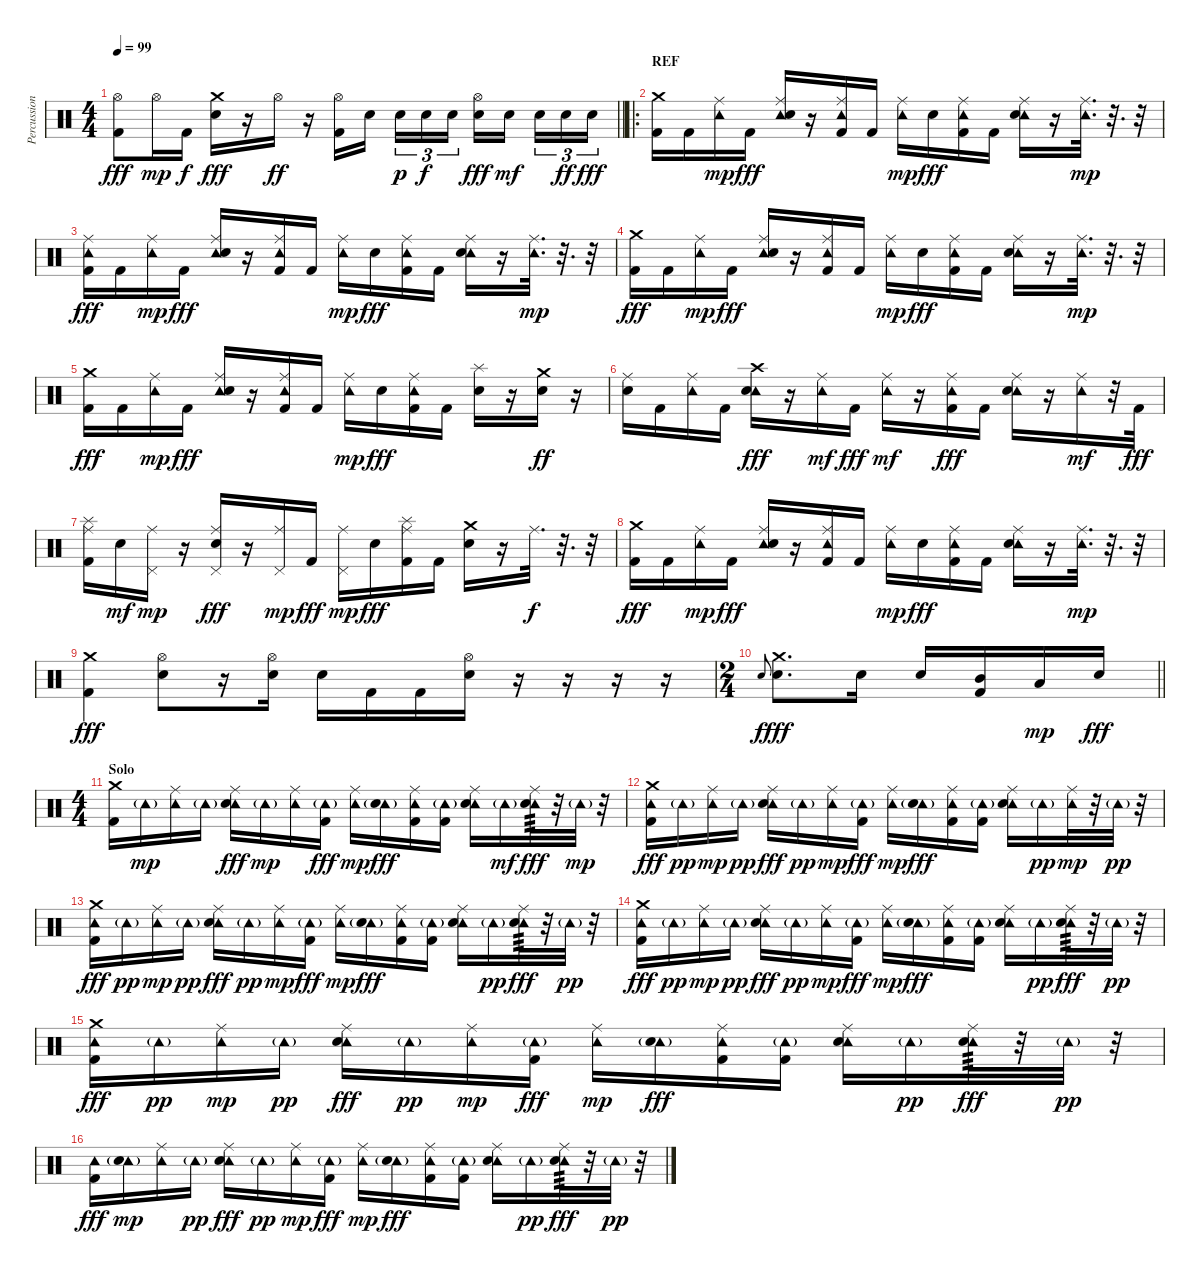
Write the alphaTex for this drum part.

\track ("Percussion" "Percussion") {instrument percussion}
\staff {score}
\articulation defaults
\ts (4 4)
\tempo 99
\clef neutral
\barLineRight lightlight
\ks c
("Hi-Hat (open)" "Kick (hit) 2").8{dy fff} "Hi-Hat (open)".16{dy mp} "Kick (hit) 2".16{dy f} ("Crash medium (hit)" "Snare (hit) 2").16{dy fff} r.16 "Hi-Hat (open)".16{dy ff} r.16 ("Hi-Hat (open)" "Kick (hit) 2").16 "Snare (hit) 2".16{beam splitsecondary} "Snare (hit) 2".16{tu (3 2) dy p} "Snare (hit) 2".16{tu (3 2) dy f} "Snare (hit) 2".16{tu (3 2)} ("Hi-Hat (open)" "Snare (hit) 2").16{dy fff} "Snare (hit) 2".16{dy mf beam splitsecondary} "Snare (hit) 2".16{tu (3 2)} "Snare (hit) 2".16{tu (3 2) dy ff} "Snare (hit) 2".16{tu (3 2) dy fff} |
\ro
\section ("" "REF")
("Crash medium (hit)" "Kick (hit) 2").16 "Kick (hit) 2".16 ("Ride (middle)" "Tambourine (hit)").16{dy mp} "Kick (hit) 2".16{dy fff} ("Ride (middle)" "Tambourine (hit)" "Snare (hit) 2").16 r.16 ("Ride (middle)" "Tambourine (hit)" "Kick (hit) 2").16 "Kick (hit) 2".16 ("Ride (middle)" "Tambourine (hit)").16{dy mp} "Snare (hit) 2".16{dy fff} ("Ride (middle)" "Tambourine (hit)" "Kick (hit) 2").16 "Kick (hit) 2".16 ("Ride (middle)" "Tambourine (hit)" "Snare (hit) 2").16 r.16 ("Ride (middle)" "Tambourine (hit)").32{d dy mp} r.32{d} r.32 |
("Ride (middle)" "Tambourine (hit)" "Kick (hit) 2").16{dy fff} "Kick (hit) 2".16 ("Ride (middle)" "Tambourine (hit)").16{dy mp} "Kick (hit) 2".16{dy fff} ("Ride (middle)" "Tambourine (hit)" "Snare (hit) 2").16 r.16 ("Ride (middle)" "Tambourine (hit)" "Kick (hit) 2").16 "Kick (hit) 2".16 ("Ride (middle)" "Tambourine (hit)").16{dy mp} "Snare (hit) 2".16{dy fff} ("Ride (middle)" "Tambourine (hit)" "Kick (hit) 2").16 "Kick (hit) 2".16 ("Ride (middle)" "Tambourine (hit)" "Snare (hit) 2").16 r.16 ("Ride (middle)" "Tambourine (hit)").32{d dy mp} r.32{d} r.32 |
("Crash medium (hit)" "Kick (hit) 2").16{dy fff} "Kick (hit) 2".16 ("Ride (middle)" "Tambourine (hit)").16{dy mp} "Kick (hit) 2".16{dy fff} ("Ride (middle)" "Tambourine (hit)" "Snare (hit) 2").16 r.16 ("Ride (middle)" "Tambourine (hit)" "Kick (hit) 2").16 "Kick (hit) 2".16 ("Ride (middle)" "Tambourine (hit)").16{dy mp} "Snare (hit) 2".16{dy fff} ("Ride (middle)" "Tambourine (hit)" "Kick (hit) 2").16 "Kick (hit) 2".16 ("Ride (middle)" "Tambourine (hit)" "Snare (hit) 2").16 r.16 ("Ride (middle)" "Tambourine (hit)").32{d dy mp} r.32{d} r.32 |
("Crash medium (hit)" "Kick (hit) 2").16{dy fff} "Kick (hit) 2".16 ("Ride (middle)" "Tambourine (hit)").16{dy mp} "Kick (hit) 2".16{dy fff} ("Ride (middle)" "Tambourine (hit)" "Snare (hit) 2").16 r.16 ("Ride (middle)" "Tambourine (hit)" "Kick (hit) 2").16 "Kick (hit) 2".16 ("Ride (middle)" "Tambourine (hit)").16{dy mp} "Snare (hit) 2".16{dy fff} ("Ride (middle)" "Tambourine (hit)" "Kick (hit) 2").16 "Kick (hit) 2".16 ("Splash (hit)" "Snare (hit) 2").16 r.16 ("Crash medium (hit)" "Snare (hit) 2").16{dy ff} r.16 |
("Ride (middle)" "Snare (hit) 2").16 "Kick (hit) 2".16 ("Ride (middle)" "Tambourine (hit)").16 "Kick (hit) 2".16 ("Crash high (hit)" "Tambourine (hit)" "Snare (hit) 2").16{dy fff} r.16 ("Ride (middle)" "Tambourine (hit)").16{dy mf} "Kick (hit) 2".16{dy fff} ("Ride (middle)" "Tambourine (hit)").16{dy mf} r.16 ("Ride (middle)" "Tambourine (hit)" "Kick (hit) 2").16{dy fff} "Kick (hit) 2".16 ("Ride (middle)" "Tambourine (hit)" "Snare (hit) 2").16 r.16 ("Ride (middle)" "Tambourine (hit)").16{dy mf} r.32 "Kick (hit) 2".32{dy fff} |
("Ride (middle)" "Splash (hit)" "Kick (hit) 2").16 "Snare (hit) 2".16{dy mf} ("Ride (middle)" "Pedal Hi-Hat (hit)").16{dy mp} r.16 ("Ride (middle)" "Pedal Hi-Hat (hit)" "Snare (hit) 2").16{dy fff} r.16 ("Ride (middle)" "Pedal Hi-Hat (hit)").16{dy mp} "Kick (hit) 2".16{dy fff} ("Ride (middle)" "Pedal Hi-Hat (hit)").16{dy mp} "Snare (hit) 2".16{dy fff} ("Ride (middle)" "Splash (hit)" "Kick (hit) 2").16 "Kick (hit) 2".16 ("Crash medium (hit)" "Snare (hit) 2").16 r.16 "Ride (middle)".32{d dy f} r.32{d} r.32 |
("Crash medium (hit)" "Kick (hit) 2").16{dy fff} "Kick (hit) 2".16 ("Ride (middle)" "Tambourine (hit)").16{dy mp} "Kick (hit) 2".16{dy fff} ("Ride (middle)" "Tambourine (hit)" "Snare (hit) 2").16 r.16 ("Ride (middle)" "Tambourine (hit)" "Kick (hit) 2").16 "Kick (hit) 2".16 ("Ride (middle)" "Tambourine (hit)").16{dy mp} "Snare (hit) 2".16{dy fff} ("Ride (middle)" "Tambourine (hit)" "Kick (hit) 2").16 "Kick (hit) 2".16 ("Ride (middle)" "Tambourine (hit)" "Snare (hit) 2").16 r.16 ("Ride (middle)" "Tambourine (hit)").32{d dy mp} r.32{d} r.32 |
("Crash medium (hit)" "Kick (hit) 2").4{dy fff} ("Hi-Hat (open)" "Snare (hit) 2").8 r.16 ("Hi-Hat (open)" "Snare (hit) 2").16 "Snare (hit) 2".16 "Kick (hit) 2".16 "Kick (hit) 2".16 ("Hi-Hat (open)" "Snare (hit) 2").16 r.16 r.16 r.16 r.16 |
\ts (2 4)
\barLineRight lightlight "Snare (hit) 2".8{gr onbeat dy f}
("Crash medium (hit)" "Snare (hit) 2").8{d dy fff} "Snare (hit) 2".16 "Snare (hit) 2".16 ("Mid Tom (hit)" "Kick (hit) 2").16 "Low Tom (hit)".16{dy mp} "Snare (hit) 2".16{dy fff} |
\ts (4 4)
\section ("" "Solo")
("Crash medium (hit)" "Kick (hit) 2").16 "Tambourine (hit)"{g}.16{dy mp} ("Tambourine (hit)" "Ride (middle)").16 "Tambourine (hit)"{g}.16 ("Tambourine (hit)" "Ride (middle)" "Snare (hit) 2").16{dy fff} "Tambourine (hit)"{g}.16{dy mp} ("Tambourine (hit)" "Ride (middle)").16 ("Tambourine (hit)"{g} "Kick (hit) 2").16{dy fff} ("Tambourine (hit)" "Ride (middle)").16{dy mp} ("Tambourine (hit)"{g} "Snare (hit) 2").16{dy fff} ("Tambourine (hit)" "Ride (middle)" "Kick (hit) 2").16 ("Tambourine (hit)"{g} "Kick (hit) 2").16 ("Tambourine (hit)" "Ride (middle)" "Snare (hit) 2").16 "Tambourine (hit)"{g}.16{dy mf} ("Tambourine (hit)" "Ride (middle)" "Snare (hit) 2").32{tp 3 dy fff} r.32 "Tambourine (hit)"{g}.32{dy mp} r.32 |
("Tambourine (hit)" "Crash medium (hit)" "Kick (hit) 2").16{dy fff} "Tambourine (hit)"{g}.16{dy pp} ("Tambourine (hit)" "Ride (middle)").16{dy mp} "Tambourine (hit)"{g}.16{dy pp} ("Tambourine (hit)" "Ride (middle)" "Snare (hit) 2").16{dy fff} "Tambourine (hit)"{g}.16{dy pp} ("Tambourine (hit)" "Ride (middle)").16{dy mp} ("Tambourine (hit)"{g} "Kick (hit) 2").16{dy fff} ("Tambourine (hit)" "Ride (middle)").16{dy mp} ("Tambourine (hit)"{g} "Snare (hit) 2").16{dy fff} ("Tambourine (hit)" "Ride (middle)" "Kick (hit) 2").16 ("Tambourine (hit)"{g} "Kick (hit) 2").16 ("Tambourine (hit)" "Ride (middle)" "Snare (hit) 2").16 "Tambourine (hit)"{g}.16{dy pp} ("Tambourine (hit)" "Ride (middle)").32{dy mp} r.32 "Tambourine (hit)"{g}.32{dy pp} r.32 |
("Tambourine (hit)" "Crash medium (hit)" "Kick (hit) 2").16{dy fff} "Tambourine (hit)"{g}.16{dy pp} ("Tambourine (hit)" "Ride (middle)").16{dy mp} "Tambourine (hit)"{g}.16{dy pp} ("Tambourine (hit)" "Ride (middle)" "Snare (hit) 2").16{dy fff} "Tambourine (hit)"{g}.16{dy pp} ("Tambourine (hit)" "Ride (middle)").16{dy mp} ("Tambourine (hit)"{g} "Kick (hit) 2").16{dy fff} ("Tambourine (hit)" "Ride (middle)").16{dy mp} ("Tambourine (hit)"{g} "Snare (hit) 2").16{dy fff} ("Tambourine (hit)" "Ride (middle)" "Kick (hit) 2").16 ("Tambourine (hit)"{g} "Kick (hit) 2").16 ("Tambourine (hit)" "Ride (middle)" "Snare (hit) 2").16 "Tambourine (hit)"{g}.16{dy pp} ("Tambourine (hit)" "Ride (middle)" "Snare (hit) 2").32{tp 3 dy fff} r.32 "Tambourine (hit)"{g}.32{dy pp} r.32 |
("Tambourine (hit)" "Crash medium (hit)" "Kick (hit) 2").16{dy fff} "Tambourine (hit)"{g}.16{dy pp} ("Tambourine (hit)" "Ride (middle)").16{dy mp} "Tambourine (hit)"{g}.16{dy pp} ("Tambourine (hit)" "Ride (middle)" "Snare (hit) 2").16{dy fff} "Tambourine (hit)"{g}.16{dy pp} ("Tambourine (hit)" "Ride (middle)").16{dy mp} ("Tambourine (hit)"{g} "Kick (hit) 2").16{dy fff} ("Tambourine (hit)" "Ride (middle)").16{dy mp} ("Tambourine (hit)"{g} "Snare (hit) 2").16{dy fff} ("Tambourine (hit)" "Ride (middle)" "Kick (hit) 2").16 ("Tambourine (hit)"{g} "Kick (hit) 2").16 ("Tambourine (hit)" "Ride (middle)" "Snare (hit) 2").16 "Tambourine (hit)"{g}.16{dy pp} ("Tambourine (hit)" "Ride (middle)" "Snare (hit) 2").32{tp 3 dy fff} r.32 "Tambourine (hit)"{g}.32{dy pp} r.32 |
("Tambourine (hit)" "Crash medium (hit)" "Kick (hit) 2").16{dy fff} "Tambourine (hit)"{g}.16{dy pp} ("Tambourine (hit)" "Ride (middle)").16{dy mp} "Tambourine (hit)"{g}.16{dy pp} ("Tambourine (hit)" "Ride (middle)" "Snare (hit) 2").16{dy fff} "Tambourine (hit)"{g}.16{dy pp} ("Tambourine (hit)" "Ride (middle)").16{dy mp} ("Tambourine (hit)"{g} "Kick (hit) 2").16{dy fff} ("Tambourine (hit)" "Ride (middle)").16{dy mp} ("Tambourine (hit)"{g} "Snare (hit) 2").16{dy fff} ("Tambourine (hit)" "Ride (middle)" "Kick (hit) 2").16 ("Tambourine (hit)"{g} "Kick (hit) 2").16 ("Tambourine (hit)" "Ride (middle)" "Snare (hit) 2").16 "Tambourine (hit)"{g}.16{dy pp} ("Tambourine (hit)" "Ride (middle)" "Snare (hit) 2").32{tp 3 dy fff} r.32 "Tambourine (hit)"{g}.32{dy pp} r.32 |
("Tambourine (hit)" "Kick (hit) 2").16{dy fff} ("Tambourine (hit)"{g} "Snare (hit) 2").16{dy mp} ("Tambourine (hit)" "Ride (middle)").16 "Tambourine (hit)"{g}.16{dy pp} ("Tambourine (hit)" "Ride (middle)" "Snare (hit) 2").16{dy fff} "Tambourine (hit)"{g}.16{dy pp} ("Tambourine (hit)" "Ride (middle)").16{dy mp} ("Tambourine (hit)"{g} "Kick (hit) 2").16{dy fff} ("Tambourine (hit)" "Ride (middle)").16{dy mp} ("Tambourine (hit)"{g} "Snare (hit) 2").16{dy fff} ("Tambourine (hit)" "Ride (middle)" "Kick (hit) 2").16 ("Tambourine (hit)"{g} "Kick (hit) 2").16 ("Tambourine (hit)" "Ride (middle)" "Snare (hit) 2").16 "Tambourine (hit)"{g}.16{dy pp} ("Tambourine (hit)" "Ride (middle)" "Snare (hit) 2").32{tp 3 dy fff} r.32 "Tambourine (hit)"{g}.32{dy pp} r.32
